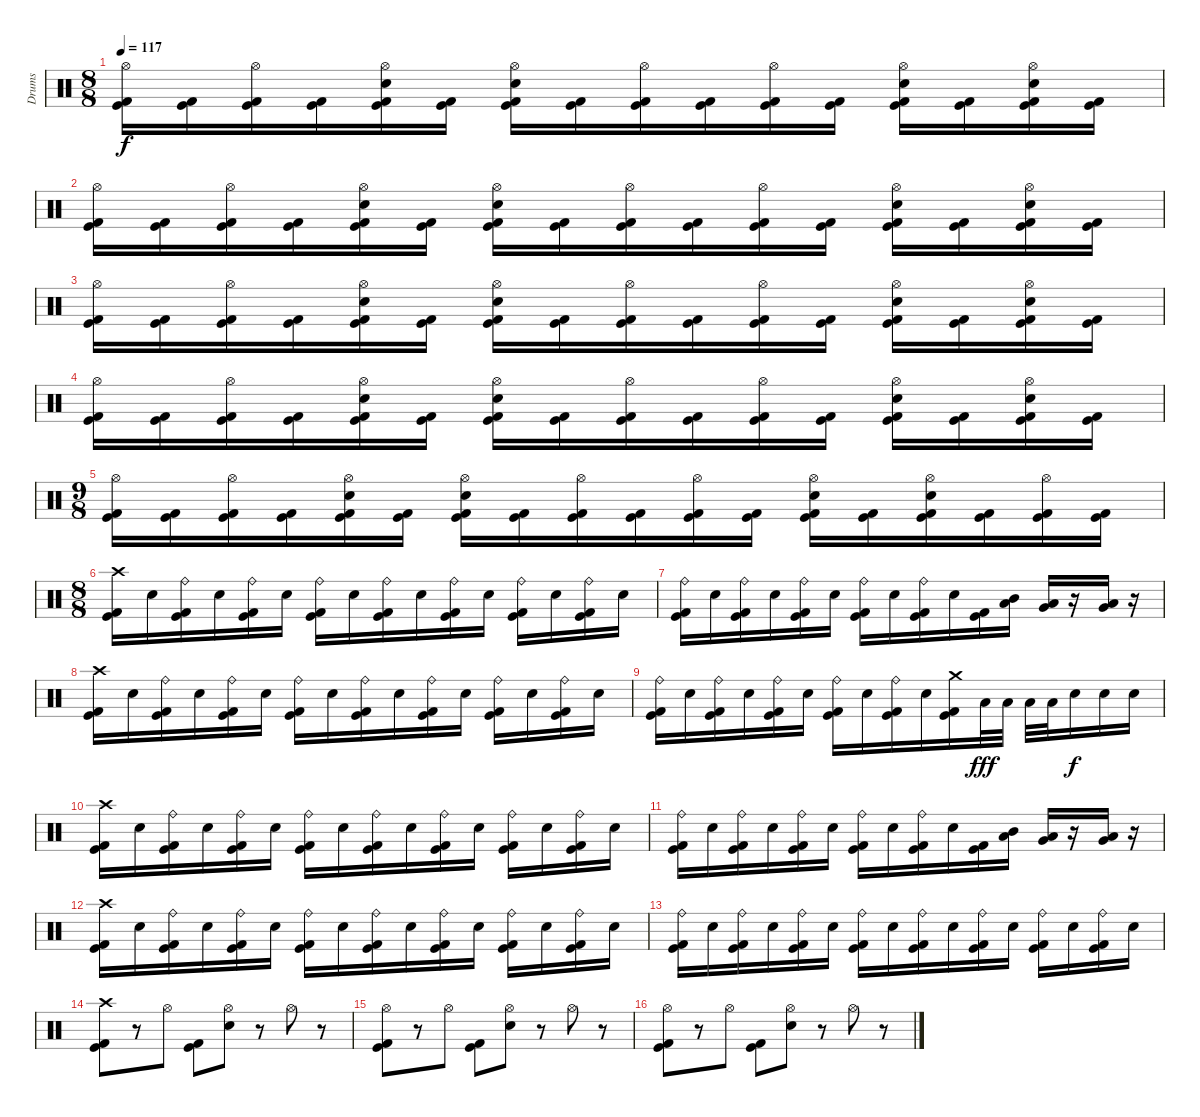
\track ("Drums" "Drums") {instrument percussion}
\staff {score}
\articulation defaults
\ts (8 8)
\tempo 117
\clef neutral
\ks c
("Hi-Hat (open)" "Kick (hit)" "Kick (hit) 2").16{dy f} ("Kick (hit)" "Kick (hit) 2").16 ("Hi-Hat (open)" "Kick (hit)" "Kick (hit) 2").16 ("Kick (hit)" "Kick (hit) 2").16 ("Hi-Hat (open)" "Electric Snare (hit)" "Kick (hit)" "Kick (hit) 2").16 ("Kick (hit)" "Kick (hit) 2").16 ("Hi-Hat (open)" "Electric Snare (hit)" "Kick (hit)" "Kick (hit) 2").16 ("Kick (hit)" "Kick (hit) 2").16 ("Hi-Hat (open)" "Kick (hit)" "Kick (hit) 2").16 ("Kick (hit)" "Kick (hit) 2").16 ("Hi-Hat (open)" "Kick (hit)" "Kick (hit) 2").16 ("Kick (hit)" "Kick (hit) 2").16 ("Hi-Hat (open)" "Electric Snare (hit)" "Kick (hit)" "Kick (hit) 2").16 ("Kick (hit)" "Kick (hit) 2").16 ("Hi-Hat (open)" "Electric Snare (hit)" "Kick (hit)" "Kick (hit) 2").16 ("Kick (hit)" "Kick (hit) 2").16 |
("Hi-Hat (open)" "Kick (hit)" "Kick (hit) 2").16 ("Kick (hit)" "Kick (hit) 2").16 ("Hi-Hat (open)" "Kick (hit)" "Kick (hit) 2").16 ("Kick (hit)" "Kick (hit) 2").16 ("Hi-Hat (open)" "Electric Snare (hit)" "Kick (hit)" "Kick (hit) 2").16 ("Kick (hit)" "Kick (hit) 2").16 ("Hi-Hat (open)" "Electric Snare (hit)" "Kick (hit)" "Kick (hit) 2").16 ("Kick (hit)" "Kick (hit) 2").16 ("Hi-Hat (open)" "Kick (hit)" "Kick (hit) 2").16 ("Kick (hit)" "Kick (hit) 2").16 ("Hi-Hat (open)" "Kick (hit)" "Kick (hit) 2").16 ("Kick (hit)" "Kick (hit) 2").16 ("Hi-Hat (open)" "Electric Snare (hit)" "Kick (hit)" "Kick (hit) 2").16 ("Kick (hit)" "Kick (hit) 2").16 ("Hi-Hat (open)" "Electric Snare (hit)" "Kick (hit)" "Kick (hit) 2").16 ("Kick (hit)" "Kick (hit) 2").16 |
("Hi-Hat (open)" "Kick (hit)" "Kick (hit) 2").16 ("Kick (hit)" "Kick (hit) 2").16 ("Hi-Hat (open)" "Kick (hit)" "Kick (hit) 2").16 ("Kick (hit)" "Kick (hit) 2").16 ("Hi-Hat (open)" "Electric Snare (hit)" "Kick (hit)" "Kick (hit) 2").16 ("Kick (hit)" "Kick (hit) 2").16 ("Hi-Hat (open)" "Electric Snare (hit)" "Kick (hit)" "Kick (hit) 2").16 ("Kick (hit)" "Kick (hit) 2").16 ("Hi-Hat (open)" "Kick (hit)" "Kick (hit) 2").16 ("Kick (hit)" "Kick (hit) 2").16 ("Hi-Hat (open)" "Kick (hit)" "Kick (hit) 2").16 ("Kick (hit)" "Kick (hit) 2").16 ("Hi-Hat (open)" "Electric Snare (hit)" "Kick (hit)" "Kick (hit) 2").16 ("Kick (hit)" "Kick (hit) 2").16 ("Hi-Hat (open)" "Electric Snare (hit)" "Kick (hit)" "Kick (hit) 2").16 ("Kick (hit)" "Kick (hit) 2").16 |
("Hi-Hat (open)" "Kick (hit)" "Kick (hit) 2").16 ("Kick (hit)" "Kick (hit) 2").16 ("Hi-Hat (open)" "Kick (hit)" "Kick (hit) 2").16 ("Kick (hit)" "Kick (hit) 2").16 ("Hi-Hat (open)" "Electric Snare (hit)" "Kick (hit)" "Kick (hit) 2").16 ("Kick (hit)" "Kick (hit) 2").16 ("Hi-Hat (open)" "Electric Snare (hit)" "Kick (hit)" "Kick (hit) 2").16 ("Kick (hit)" "Kick (hit) 2").16 ("Hi-Hat (open)" "Kick (hit)" "Kick (hit) 2").16 ("Kick (hit)" "Kick (hit) 2").16 ("Hi-Hat (open)" "Kick (hit)" "Kick (hit) 2").16 ("Kick (hit)" "Kick (hit) 2").16 ("Hi-Hat (open)" "Electric Snare (hit)" "Kick (hit)" "Kick (hit) 2").16 ("Kick (hit)" "Kick (hit) 2").16 ("Hi-Hat (open)" "Electric Snare (hit)" "Kick (hit)" "Kick (hit) 2").16 ("Kick (hit)" "Kick (hit) 2").16 |
\ts (9 8)
("Hi-Hat (open)" "Kick (hit)" "Kick (hit) 2").16 ("Kick (hit)" "Kick (hit) 2").16 ("Hi-Hat (open)" "Kick (hit)" "Kick (hit) 2").16 ("Kick (hit)" "Kick (hit) 2").16 ("Hi-Hat (open)" "Electric Snare (hit)" "Kick (hit)" "Kick (hit) 2").16 ("Kick (hit)" "Kick (hit) 2").16 ("Hi-Hat (open)" "Electric Snare (hit)" "Kick (hit)" "Kick (hit) 2").16 ("Kick (hit)" "Kick (hit) 2").16 ("Hi-Hat (open)" "Kick (hit)" "Kick (hit) 2").16 ("Kick (hit)" "Kick (hit) 2").16 ("Hi-Hat (open)" "Kick (hit)" "Kick (hit) 2").16 ("Kick (hit)" "Kick (hit) 2").16 ("Hi-Hat (open)" "Electric Snare (hit)" "Kick (hit)" "Kick (hit) 2").16 ("Kick (hit)" "Kick (hit) 2").16 ("Hi-Hat (open)" "Electric Snare (hit)" "Kick (hit)" "Kick (hit) 2").16 ("Kick (hit)" "Kick (hit) 2").16 ("Hi-Hat (open)" "Kick (hit)" "Kick (hit) 2").16 ("Kick (hit)" "Kick (hit) 2").16 |
\ts (8 8)
("Crash high (hit)" "Kick (hit)" "Kick (hit) 2").16 "Electric Snare (hit)".16 ("Ride (bell)" "Kick (hit)" "Kick (hit) 2").16 "Electric Snare (hit)".16 ("Ride (bell)" "Kick (hit)" "Kick (hit) 2").16 "Electric Snare (hit)".16 ("Ride (bell)" "Kick (hit)" "Kick (hit) 2").16 "Electric Snare (hit)".16 ("Ride (bell)" "Kick (hit)" "Kick (hit) 2").16 "Electric Snare (hit)".16 ("Ride (bell)" "Kick (hit)" "Kick (hit) 2").16 "Electric Snare (hit)".16 ("Ride (bell)" "Kick (hit)" "Kick (hit) 2").16 "Electric Snare (hit)".16 ("Ride (bell)" "Kick (hit)" "Kick (hit) 2").16 "Electric Snare (hit)".16 |
("Ride (bell)" "Kick (hit)" "Kick (hit) 2").16 "Electric Snare (hit)".16 ("Ride (bell)" "Kick (hit)" "Kick (hit) 2").16 "Electric Snare (hit)".16 ("Ride (bell)" "Kick (hit)" "Kick (hit) 2").16 "Electric Snare (hit)".16 ("Ride (bell)" "Kick (hit)" "Kick (hit) 2").16 "Electric Snare (hit)".16 ("Ride (bell)" "Kick (hit)" "Kick (hit) 2").16 "Electric Snare (hit)".16 ("Kick (hit)" "Kick (hit) 2").16 ("Low Tom (hit)" "Mid Tom (hit)").16 ("Very Low Tom (hit)" "Low Tom (hit)").16 r.16 ("Very Low Tom (hit)" "Low Tom (hit)").16 r.16 |
("Crash high (hit)" "Kick (hit)" "Kick (hit) 2").16 "Electric Snare (hit)".16 ("Ride (bell)" "Kick (hit)" "Kick (hit) 2").16 "Electric Snare (hit)".16 ("Ride (bell)" "Kick (hit)" "Kick (hit) 2").16 "Electric Snare (hit)".16 ("Ride (bell)" "Kick (hit)" "Kick (hit) 2").16 "Electric Snare (hit)".16 ("Ride (bell)" "Kick (hit)" "Kick (hit) 2").16 "Electric Snare (hit)".16 ("Ride (bell)" "Kick (hit)" "Kick (hit) 2").16 "Electric Snare (hit)".16 ("Ride (bell)" "Kick (hit)" "Kick (hit) 2").16 "Electric Snare (hit)".16 ("Ride (bell)" "Kick (hit)" "Kick (hit) 2").16 "Electric Snare (hit)".16 |
("Ride (bell)" "Kick (hit)" "Kick (hit) 2").16 "Electric Snare (hit)".16 ("Ride (bell)" "Kick (hit)" "Kick (hit) 2").16 "Electric Snare (hit)".16 ("Ride (bell)" "Kick (hit)" "Kick (hit) 2").16 "Electric Snare (hit)".16 ("Ride (bell)" "Kick (hit)" "Kick (hit) 2").16 "Electric Snare (hit)".16 ("Ride (bell)" "Kick (hit)" "Kick (hit) 2").16 "Electric Snare (hit)".16 ("Crash medium (hit)" "Kick (hit)" "Kick (hit) 2").16 "Low Tom (hit)".32{dy fff} "Low Tom (hit)".32 "Low Tom (hit)".32 "Low Tom (hit)".32 "Electric Snare (hit)".16{dy f} "Electric Snare (hit)".16 "Electric Snare (hit)".16 |
("Crash high (hit)" "Kick (hit)" "Kick (hit) 2").16 "Electric Snare (hit)".16 ("Ride (bell)" "Kick (hit)" "Kick (hit) 2").16 "Electric Snare (hit)".16 ("Ride (bell)" "Kick (hit)" "Kick (hit) 2").16 "Electric Snare (hit)".16 ("Ride (bell)" "Kick (hit)" "Kick (hit) 2").16 "Electric Snare (hit)".16 ("Ride (bell)" "Kick (hit)" "Kick (hit) 2").16 "Electric Snare (hit)".16 ("Ride (bell)" "Kick (hit)" "Kick (hit) 2").16 "Electric Snare (hit)".16 ("Ride (bell)" "Kick (hit)" "Kick (hit) 2").16 "Electric Snare (hit)".16 ("Ride (bell)" "Kick (hit)" "Kick (hit) 2").16 "Electric Snare (hit)".16 |
("Ride (bell)" "Kick (hit)" "Kick (hit) 2").16 "Electric Snare (hit)".16 ("Ride (bell)" "Kick (hit)" "Kick (hit) 2").16 "Electric Snare (hit)".16 ("Ride (bell)" "Kick (hit)" "Kick (hit) 2").16 "Electric Snare (hit)".16 ("Ride (bell)" "Kick (hit)" "Kick (hit) 2").16 "Electric Snare (hit)".16 ("Ride (bell)" "Kick (hit)" "Kick (hit) 2").16 "Electric Snare (hit)".16 ("Kick (hit)" "Kick (hit) 2").16 ("Low Tom (hit)" "Mid Tom (hit)").16 ("Very Low Tom (hit)" "Low Tom (hit)").16 r.16 ("Very Low Tom (hit)" "Low Tom (hit)").16 r.16 |
("Crash high (hit)" "Kick (hit)" "Kick (hit) 2").16 "Electric Snare (hit)".16 ("Ride (bell)" "Kick (hit)" "Kick (hit) 2").16 "Electric Snare (hit)".16 ("Ride (bell)" "Kick (hit)" "Kick (hit) 2").16 "Electric Snare (hit)".16 ("Ride (bell)" "Kick (hit)" "Kick (hit) 2").16 "Electric Snare (hit)".16 ("Ride (bell)" "Kick (hit)" "Kick (hit) 2").16 "Electric Snare (hit)".16 ("Ride (bell)" "Kick (hit)" "Kick (hit) 2").16 "Electric Snare (hit)".16 ("Ride (bell)" "Kick (hit)" "Kick (hit) 2").16 "Electric Snare (hit)".16 ("Ride (bell)" "Kick (hit)" "Kick (hit) 2").16 "Electric Snare (hit)".16 |
("Ride (bell)" "Kick (hit)" "Kick (hit) 2").16 "Electric Snare (hit)".16 ("Ride (bell)" "Kick (hit)" "Kick (hit) 2").16 "Electric Snare (hit)".16 ("Ride (bell)" "Kick (hit)" "Kick (hit) 2").16 "Electric Snare (hit)".16 ("Ride (bell)" "Kick (hit)" "Kick (hit) 2").16 "Electric Snare (hit)".16 ("Ride (bell)" "Kick (hit)" "Kick (hit) 2").16 "Electric Snare (hit)".16 ("Ride (bell)" "Kick (hit)" "Kick (hit) 2").16 "Electric Snare (hit)".16 ("Ride (bell)" "Kick (hit)" "Kick (hit) 2").16 "Electric Snare (hit)".16 ("Ride (bell)" "Kick (hit)" "Kick (hit) 2").16 "Electric Snare (hit)".16 |
("Crash high (hit)" "Kick (hit)" "Kick (hit) 2").8 r.8 "Hi-Hat (open)".8 ("Kick (hit)" "Kick (hit) 2").8 ("Hi-Hat (open)" "Electric Snare (hit)").8 r.8 "Hi-Hat (open)".8 r.8 |
("Hi-Hat (open)" "Kick (hit)" "Kick (hit) 2").8 r.8 "Hi-Hat (open)".8 ("Kick (hit)" "Kick (hit) 2").8 ("Hi-Hat (open)" "Electric Snare (hit)").8 r.8 "Hi-Hat (open)".8 r.8 |
("Hi-Hat (open)" "Kick (hit)" "Kick (hit) 2").8 r.8 "Hi-Hat (open)".8 ("Kick (hit)" "Kick (hit) 2").8 ("Hi-Hat (open)" "Electric Snare (hit)").8 r.8 "Hi-Hat (open)".8 r.8
